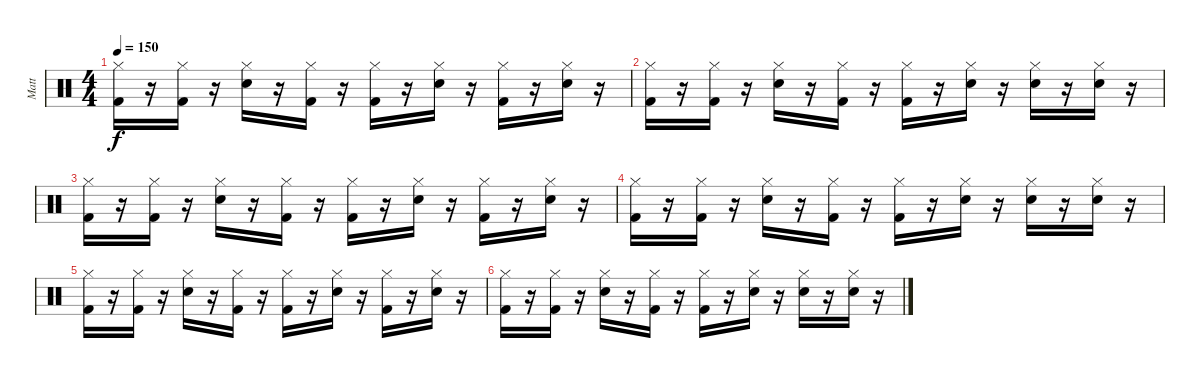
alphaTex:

\track ("Matt" "Matt") {instrument percussion}
\staff {score}
\articulation defaults
\ts (4 4)
\tempo 150
\clef neutral
\ks c
("Hi-Hat (closed)" "Kick (hit) 2").16{dy f} r.16 ("Hi-Hat (closed)" "Kick (hit) 2").16 r.16 ("Hi-Hat (closed)" "Snare (hit) 2").16 r.16 ("Hi-Hat (closed)" "Kick (hit) 2").16 r.16 ("Hi-Hat (closed)" "Kick (hit) 2").16 r.16 ("Hi-Hat (closed)" "Snare (hit) 2").16 r.16 ("Hi-Hat (closed)" "Kick (hit) 2").16 r.16 ("Hi-Hat (closed)" "Snare (hit) 2").16 r.16 |
("Hi-Hat (closed)" "Kick (hit) 2").16 r.16 ("Hi-Hat (closed)" "Kick (hit) 2").16 r.16 ("Hi-Hat (closed)" "Snare (hit) 2").16 r.16 ("Hi-Hat (closed)" "Kick (hit) 2").16 r.16 ("Hi-Hat (closed)" "Kick (hit) 2").16 r.16 ("Hi-Hat (closed)" "Snare (hit) 2").16 r.16 ("Hi-Hat (closed)" "Snare (hit) 2").16 r.16 ("Hi-Hat (closed)" "Snare (hit) 2").16 r.16 |
("Hi-Hat (closed)" "Kick (hit) 2").16 r.16 ("Hi-Hat (closed)" "Kick (hit) 2").16 r.16 ("Hi-Hat (closed)" "Snare (hit) 2").16 r.16 ("Hi-Hat (closed)" "Kick (hit) 2").16 r.16 ("Hi-Hat (closed)" "Kick (hit) 2").16 r.16 ("Hi-Hat (closed)" "Snare (hit) 2").16 r.16 ("Hi-Hat (closed)" "Kick (hit) 2").16 r.16 ("Hi-Hat (closed)" "Snare (hit) 2").16 r.16 |
("Hi-Hat (closed)" "Kick (hit) 2").16 r.16 ("Hi-Hat (closed)" "Kick (hit) 2").16 r.16 ("Hi-Hat (closed)" "Snare (hit) 2").16 r.16 ("Hi-Hat (closed)" "Kick (hit) 2").16 r.16 ("Hi-Hat (closed)" "Kick (hit) 2").16 r.16 ("Hi-Hat (closed)" "Snare (hit) 2").16 r.16 ("Hi-Hat (closed)" "Snare (hit) 2").16 r.16 ("Hi-Hat (closed)" "Snare (hit) 2").16 r.16 |
("Hi-Hat (closed)" "Kick (hit) 2").16 r.16 ("Hi-Hat (closed)" "Kick (hit) 2").16 r.16 ("Hi-Hat (closed)" "Snare (hit) 2").16 r.16 ("Hi-Hat (closed)" "Kick (hit) 2").16 r.16 ("Hi-Hat (closed)" "Kick (hit) 2").16 r.16 ("Hi-Hat (closed)" "Snare (hit) 2").16 r.16 ("Hi-Hat (closed)" "Kick (hit) 2").16 r.16 ("Hi-Hat (closed)" "Snare (hit) 2").16 r.16 |
("Hi-Hat (closed)" "Kick (hit) 2").16 r.16 ("Hi-Hat (closed)" "Kick (hit) 2").16 r.16 ("Hi-Hat (closed)" "Snare (hit) 2").16 r.16 ("Hi-Hat (closed)" "Kick (hit) 2").16 r.16 ("Hi-Hat (closed)" "Kick (hit) 2").16 r.16 ("Hi-Hat (closed)" "Snare (hit) 2").16 r.16 ("Hi-Hat (closed)" "Snare (hit) 2").16 r.16 ("Hi-Hat (closed)" "Snare (hit) 2").16 r.16
